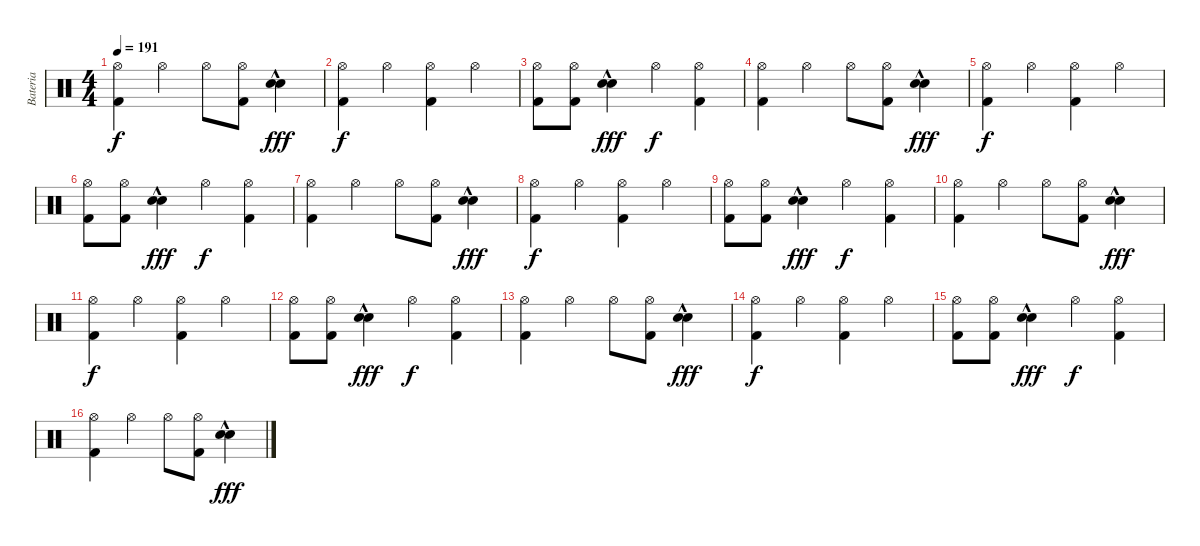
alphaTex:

\track ("Bateria" "Bateria") {instrument percussion}
\staff {score}
\articulation defaults
\ts (4 4)
\tempo 191
\clef neutral
\ks c
("Hi-Hat (open)" "Kick (hit) 2").4{dy f} "Hi-Hat (open)".4 "Hi-Hat (open)".8 ("Hi-Hat (open)" "Kick (hit) 2").8 ("Electric Snare (hit)"{hac} "Electric Snare (hit)"{hac}).4{dy fff} |
("Hi-Hat (open)" "Kick (hit) 2").4{dy f} "Hi-Hat (open)".4 ("Hi-Hat (open)" "Kick (hit) 2").4 "Hi-Hat (open)".4 |
("Hi-Hat (open)" "Kick (hit) 2").8 ("Hi-Hat (open)" "Kick (hit) 2").8 ("Electric Snare (hit)"{hac} "Electric Snare (hit)"{hac}).4{dy fff} "Hi-Hat (open)".4{dy f} ("Hi-Hat (open)" "Kick (hit) 2").4 |
("Hi-Hat (open)" "Kick (hit) 2").4 "Hi-Hat (open)".4 "Hi-Hat (open)".8 ("Hi-Hat (open)" "Kick (hit) 2").8 ("Electric Snare (hit)"{hac} "Electric Snare (hit)"{hac}).4{dy fff} |
("Hi-Hat (open)" "Kick (hit) 2").4{dy f} "Hi-Hat (open)".4 ("Hi-Hat (open)" "Kick (hit) 2").4 "Hi-Hat (open)".4 |
("Hi-Hat (open)" "Kick (hit) 2").8 ("Hi-Hat (open)" "Kick (hit) 2").8 ("Electric Snare (hit)"{hac} "Electric Snare (hit)"{hac}).4{dy fff} "Hi-Hat (open)".4{dy f} ("Hi-Hat (open)" "Kick (hit) 2").4 |
("Hi-Hat (open)" "Kick (hit) 2").4 "Hi-Hat (open)".4 "Hi-Hat (open)".8 ("Hi-Hat (open)" "Kick (hit) 2").8 ("Electric Snare (hit)"{hac} "Electric Snare (hit)"{hac}).4{dy fff} |
("Hi-Hat (open)" "Kick (hit) 2").4{dy f} "Hi-Hat (open)".4 ("Hi-Hat (open)" "Kick (hit) 2").4 "Hi-Hat (open)".4 |
("Hi-Hat (open)" "Kick (hit) 2").8 ("Hi-Hat (open)" "Kick (hit) 2").8 ("Electric Snare (hit)"{hac} "Electric Snare (hit)"{hac}).4{dy fff} "Hi-Hat (open)".4{dy f} ("Hi-Hat (open)" "Kick (hit) 2").4 |
("Hi-Hat (open)" "Kick (hit) 2").4 "Hi-Hat (open)".4 "Hi-Hat (open)".8 ("Hi-Hat (open)" "Kick (hit) 2").8 ("Electric Snare (hit)"{hac} "Electric Snare (hit)"{hac}).4{dy fff} |
("Hi-Hat (open)" "Kick (hit) 2").4{dy f} "Hi-Hat (open)".4 ("Hi-Hat (open)" "Kick (hit) 2").4 "Hi-Hat (open)".4 |
("Hi-Hat (open)" "Kick (hit) 2").8 ("Hi-Hat (open)" "Kick (hit) 2").8 ("Electric Snare (hit)"{hac} "Electric Snare (hit)"{hac}).4{dy fff} "Hi-Hat (open)".4{dy f} ("Hi-Hat (open)" "Kick (hit) 2").4 |
("Hi-Hat (open)" "Kick (hit) 2").4 "Hi-Hat (open)".4 "Hi-Hat (open)".8 ("Hi-Hat (open)" "Kick (hit) 2").8 ("Electric Snare (hit)"{hac} "Electric Snare (hit)"{hac}).4{dy fff} |
("Hi-Hat (open)" "Kick (hit) 2").4{dy f} "Hi-Hat (open)".4 ("Hi-Hat (open)" "Kick (hit) 2").4 "Hi-Hat (open)".4 |
("Hi-Hat (open)" "Kick (hit) 2").8 ("Hi-Hat (open)" "Kick (hit) 2").8 ("Electric Snare (hit)"{hac} "Electric Snare (hit)"{hac}).4{dy fff} "Hi-Hat (open)".4{dy f} ("Hi-Hat (open)" "Kick (hit) 2").4 |
("Hi-Hat (open)" "Kick (hit) 2").4 "Hi-Hat (open)".4 "Hi-Hat (open)".8 ("Hi-Hat (open)" "Kick (hit) 2").8 ("Electric Snare (hit)"{hac} "Electric Snare (hit)"{hac}).4{dy fff}
